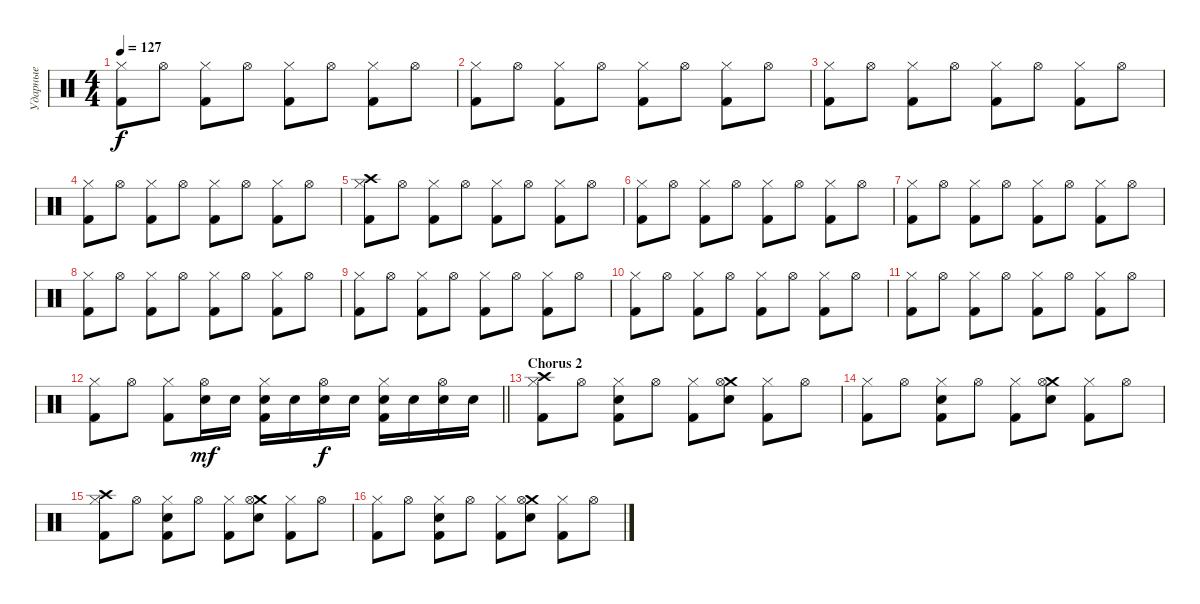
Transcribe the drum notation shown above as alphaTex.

\track ("Ударные" "Ударные") {instrument percussion}
\staff {score}
\articulation defaults
\ts (4 4)
\tempo 127
\clef neutral
\ks c
("Hi-Hat (closed)" "Kick (hit) 2").8{dy f} "Hi-Hat (open)".8 ("Hi-Hat (closed)" "Kick (hit) 2").8 "Hi-Hat (open)".8 ("Hi-Hat (closed)" "Kick (hit) 2").8 "Hi-Hat (open)".8 ("Hi-Hat (closed)" "Kick (hit) 2").8 "Hi-Hat (open)".8 |
("Hi-Hat (closed)" "Kick (hit) 2").8 "Hi-Hat (open)".8 ("Hi-Hat (closed)" "Kick (hit) 2").8 "Hi-Hat (open)".8 ("Hi-Hat (closed)" "Kick (hit) 2").8 "Hi-Hat (open)".8 ("Hi-Hat (closed)" "Kick (hit) 2").8 "Hi-Hat (open)".8 |
("Hi-Hat (closed)" "Kick (hit) 2").8 "Hi-Hat (open)".8 ("Hi-Hat (closed)" "Kick (hit) 2").8 "Hi-Hat (open)".8 ("Hi-Hat (closed)" "Kick (hit) 2").8 "Hi-Hat (open)".8 ("Hi-Hat (closed)" "Kick (hit) 2").8 "Hi-Hat (open)".8 |
("Hi-Hat (closed)" "Kick (hit) 2").8 "Hi-Hat (open)".8 ("Hi-Hat (closed)" "Kick (hit) 2").8 "Hi-Hat (open)".8 ("Hi-Hat (closed)" "Kick (hit) 2").8 "Hi-Hat (open)".8 ("Hi-Hat (closed)" "Kick (hit) 2").8 "Hi-Hat (open)".8 |
("Crash high (hit)" "Hi-Hat (closed)" "Kick (hit) 2").8 "Hi-Hat (open)".8 ("Hi-Hat (closed)" "Kick (hit) 2").8 "Hi-Hat (open)".8 ("Hi-Hat (closed)" "Kick (hit) 2").8 "Hi-Hat (open)".8 ("Hi-Hat (closed)" "Kick (hit) 2").8 "Hi-Hat (open)".8 |
("Hi-Hat (closed)" "Kick (hit) 2").8 "Hi-Hat (open)".8 ("Hi-Hat (closed)" "Kick (hit) 2").8 "Hi-Hat (open)".8 ("Hi-Hat (closed)" "Kick (hit) 2").8 "Hi-Hat (open)".8 ("Hi-Hat (closed)" "Kick (hit) 2").8 "Hi-Hat (open)".8 |
("Hi-Hat (closed)" "Kick (hit) 2").8 "Hi-Hat (open)".8 ("Hi-Hat (closed)" "Kick (hit) 2").8 "Hi-Hat (open)".8 ("Hi-Hat (closed)" "Kick (hit) 2").8 "Hi-Hat (open)".8 ("Hi-Hat (closed)" "Kick (hit) 2").8 "Hi-Hat (open)".8 |
("Hi-Hat (closed)" "Kick (hit) 2").8 "Hi-Hat (open)".8 ("Hi-Hat (closed)" "Kick (hit) 2").8 "Hi-Hat (open)".8 ("Hi-Hat (closed)" "Kick (hit) 2").8 "Hi-Hat (open)".8 ("Hi-Hat (closed)" "Kick (hit) 2").8 "Hi-Hat (open)".8 |
("Hi-Hat (closed)" "Kick (hit) 2").8 "Hi-Hat (open)".8 ("Hi-Hat (closed)" "Kick (hit) 2").8 "Hi-Hat (open)".8 ("Hi-Hat (closed)" "Kick (hit) 2").8 "Hi-Hat (open)".8 ("Hi-Hat (closed)" "Kick (hit) 2").8 "Hi-Hat (open)".8 |
("Hi-Hat (closed)" "Kick (hit) 2").8 "Hi-Hat (open)".8 ("Hi-Hat (closed)" "Kick (hit) 2").8 "Hi-Hat (open)".8 ("Hi-Hat (closed)" "Kick (hit) 2").8 "Hi-Hat (open)".8 ("Hi-Hat (closed)" "Kick (hit) 2").8 "Hi-Hat (open)".8 |
("Hi-Hat (closed)" "Kick (hit) 2").8 "Hi-Hat (open)".8 ("Hi-Hat (closed)" "Kick (hit) 2").8 "Hi-Hat (open)".8 ("Hi-Hat (closed)" "Kick (hit) 2").8 "Hi-Hat (open)".8 ("Hi-Hat (closed)" "Kick (hit) 2").8 "Hi-Hat (open)".8 |
\barLineRight lightlight
("Hi-Hat (closed)" "Kick (hit) 2").8 "Hi-Hat (open)".8 ("Hi-Hat (closed)" "Kick (hit) 2").8 ("Hi-Hat (open)" "Electric Snare (hit)").16{dy mf} "Electric Snare (hit)".16 ("Hi-Hat (closed)" "Electric Snare (hit)" "Kick (hit) 2").16 "Electric Snare (hit)".16 ("Hi-Hat (open)" "Electric Snare (hit)").16{dy f} "Electric Snare (hit)".16 ("Hi-Hat (closed)" "Electric Snare (hit)" "Kick (hit) 2").16 "Electric Snare (hit)".16 ("Hi-Hat (open)" "Electric Snare (hit)").16 "Electric Snare (hit)".16 |
\section ("" "Chorus 2")
("Crash high (hit)" "Hi-Hat (closed)" "Kick (hit) 2").8 "Hi-Hat (open)".8 ("Hi-Hat (closed)" "Electric Snare (hit)" "Kick (hit) 2").8 "Hi-Hat (open)".8 ("Hi-Hat (closed)" "Kick (hit) 2").8 ("Crash medium (hit)" "Hi-Hat (open)" "Electric Snare (hit)").8 ("Hi-Hat (closed)" "Kick (hit) 2").8 "Hi-Hat (open)".8 |
("Hi-Hat (closed)" "Kick (hit) 2").8 "Hi-Hat (open)".8 ("Hi-Hat (closed)" "Electric Snare (hit)" "Kick (hit) 2").8 "Hi-Hat (open)".8 ("Hi-Hat (closed)" "Kick (hit) 2").8 ("Crash medium (hit)" "Hi-Hat (open)" "Electric Snare (hit)").8 ("Hi-Hat (closed)" "Kick (hit) 2").8 "Hi-Hat (open)".8 |
("Crash high (hit)" "Hi-Hat (closed)" "Kick (hit) 2").8 "Hi-Hat (open)".8 ("Hi-Hat (closed)" "Electric Snare (hit)" "Kick (hit) 2").8 "Hi-Hat (open)".8 ("Hi-Hat (closed)" "Kick (hit) 2").8 ("Crash medium (hit)" "Hi-Hat (open)" "Electric Snare (hit)").8 ("Hi-Hat (closed)" "Kick (hit) 2").8 "Hi-Hat (open)".8 |
("Hi-Hat (closed)" "Kick (hit) 2").8 "Hi-Hat (open)".8 ("Hi-Hat (closed)" "Electric Snare (hit)" "Kick (hit) 2").8 "Hi-Hat (open)".8 ("Hi-Hat (closed)" "Kick (hit) 2").8 ("Crash medium (hit)" "Hi-Hat (open)" "Electric Snare (hit)").8 ("Hi-Hat (closed)" "Kick (hit) 2").8 "Hi-Hat (open)".8
